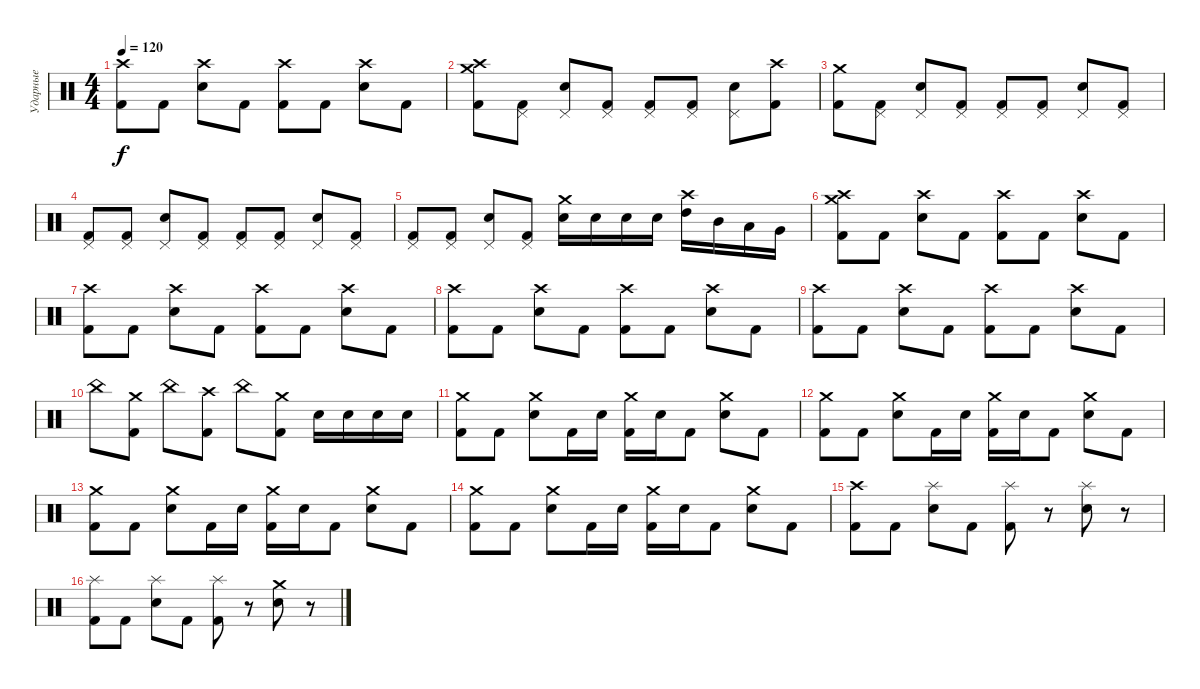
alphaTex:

\track ("Ударные" "Ударные") {instrument percussion}
\staff {score}
\articulation defaults
\ts (4 4)
\tempo 120
\clef neutral
\ks c
("Crash high (hit)" "Kick (hit) 2").8{dy f} "Kick (hit) 2".8 ("Crash high (hit)" "Electric Snare (hit)").8 "Kick (hit) 2".8 ("Crash high (hit)" "Kick (hit) 2").8 "Kick (hit) 2".8 ("Crash high (hit)" "Electric Snare (hit)").8 "Kick (hit) 2".8 |
("Crash medium (hit)" "Crash high (hit)" "Kick (hit) 2").8 ("Pedal Hi-Hat (hit)" "Kick (hit) 2").8 ("Pedal Hi-Hat (hit)" "Electric Snare (hit)").8 ("Pedal Hi-Hat (hit)" "Kick (hit) 2").8 ("Pedal Hi-Hat (hit)" "Kick (hit) 2").8 ("Pedal Hi-Hat (hit)" "Kick (hit) 2").8 ("Pedal Hi-Hat (hit)" "Electric Snare (hit)").8 ("Crash high (hit)" "Kick (hit) 2").8 |
("Crash medium (hit)" "Kick (hit) 2").8 ("Pedal Hi-Hat (hit)" "Kick (hit) 2").8 ("Pedal Hi-Hat (hit)" "Electric Snare (hit)").8 ("Pedal Hi-Hat (hit)" "Kick (hit) 2").8 ("Pedal Hi-Hat (hit)" "Kick (hit) 2").8 ("Pedal Hi-Hat (hit)" "Kick (hit) 2").8 ("Pedal Hi-Hat (hit)" "Electric Snare (hit)").8 ("Pedal Hi-Hat (hit)" "Kick (hit) 2").8 |
("Pedal Hi-Hat (hit)" "Kick (hit) 2").8 ("Pedal Hi-Hat (hit)" "Kick (hit) 2").8 ("Pedal Hi-Hat (hit)" "Electric Snare (hit)").8 ("Pedal Hi-Hat (hit)" "Kick (hit) 2").8 ("Pedal Hi-Hat (hit)" "Kick (hit) 2").8 ("Pedal Hi-Hat (hit)" "Kick (hit) 2").8 ("Pedal Hi-Hat (hit)" "Electric Snare (hit)").8 ("Pedal Hi-Hat (hit)" "Kick (hit) 2").8 |
("Pedal Hi-Hat (hit)" "Kick (hit) 2").8 ("Pedal Hi-Hat (hit)" "Kick (hit) 2").8 ("Pedal Hi-Hat (hit)" "Electric Snare (hit)").8 ("Pedal Hi-Hat (hit)" "Kick (hit) 2").8 ("Crash medium (hit)" "Electric Snare (hit)").16 "Electric Snare (hit)".16 "Electric Snare (hit)".16 "Electric Snare (hit)".16 ("Crash high (hit)" "High Tom (hit)").16 "Mid Tom (hit)".16 "Low Tom (hit)".16 "Very Low Tom (hit)".16 |
("Crash medium (hit)" "Crash high (hit)" "Kick (hit) 2").8 "Kick (hit) 2".8 ("Crash high (hit)" "Electric Snare (hit)").8 "Kick (hit) 2".8 ("Crash high (hit)" "Kick (hit) 2").8 "Kick (hit) 2".8 ("Crash high (hit)" "Electric Snare (hit)").8 "Kick (hit) 2".8 |
("Crash high (hit)" "Kick (hit) 2").8 "Kick (hit) 2".8 ("Crash high (hit)" "Electric Snare (hit)").8 "Kick (hit) 2".8 ("Crash high (hit)" "Kick (hit) 2").8 "Kick (hit) 2".8 ("Crash high (hit)" "Electric Snare (hit)").8 "Kick (hit) 2".8 |
("Crash high (hit)" "Kick (hit) 2").8 "Kick (hit) 2".8 ("Crash high (hit)" "Electric Snare (hit)").8 "Kick (hit) 2".8 ("Crash high (hit)" "Kick (hit) 2").8 "Kick (hit) 2".8 ("Crash high (hit)" "Electric Snare (hit)").8 "Kick (hit) 2".8 |
("Crash high (hit)" "Kick (hit) 2").8 "Kick (hit) 2".8 ("Crash high (hit)" "Electric Snare (hit)").8 "Kick (hit) 2".8 ("Crash high (hit)" "Kick (hit) 2").8 "Kick (hit) 2".8 ("Crash high (hit)" "Electric Snare (hit)").8 "Kick (hit) 2".8 |
"China (hit)".8 ("Crash medium (hit)" "Kick (hit) 2").8 "China (hit)".8 ("Crash high (hit)" "Kick (hit) 2").8 "China (hit)".8 ("Crash medium (hit)" "Kick (hit) 2").8 "Electric Snare (hit)".16 "Electric Snare (hit)".16 "Electric Snare (hit)".16 "Electric Snare (hit)".16 |
("Crash medium (hit)" "Kick (hit) 2").8 "Kick (hit) 2".8 ("Crash medium (hit)" "Electric Snare (hit)").8 "Kick (hit) 2".16 "Electric Snare (hit)".16 ("Crash medium (hit)" "Kick (hit) 2").16 "Electric Snare (hit)".16 "Kick (hit) 2".8 ("Crash medium (hit)" "Electric Snare (hit)").8 "Kick (hit) 2".8 |
("Crash medium (hit)" "Kick (hit) 2").8 "Kick (hit) 2".8 ("Crash medium (hit)" "Electric Snare (hit)").8 "Kick (hit) 2".16 "Electric Snare (hit)".16 ("Crash medium (hit)" "Kick (hit) 2").16 "Electric Snare (hit)".16 "Kick (hit) 2".8 ("Crash medium (hit)" "Electric Snare (hit)").8 "Kick (hit) 2".8 |
("Crash medium (hit)" "Kick (hit) 2").8 "Kick (hit) 2".8 ("Crash medium (hit)" "Electric Snare (hit)").8 "Kick (hit) 2".16 "Electric Snare (hit)".16 ("Crash medium (hit)" "Kick (hit) 2").16 "Electric Snare (hit)".16 "Kick (hit) 2".8 ("Crash medium (hit)" "Electric Snare (hit)").8 "Kick (hit) 2".8 |
("Crash medium (hit)" "Kick (hit) 2").8 "Kick (hit) 2".8 ("Crash medium (hit)" "Electric Snare (hit)").8 "Kick (hit) 2".16 "Electric Snare (hit)".16 ("Crash medium (hit)" "Kick (hit) 2").16 "Electric Snare (hit)".16 "Kick (hit) 2".8 ("Crash medium (hit)" "Electric Snare (hit)").8 "Kick (hit) 2".8 |
("Crash high (hit)" "Kick (hit) 2").8 "Kick (hit) 2".8 ("Splash (hit)" "Electric Snare (hit)").8 "Kick (hit) 2".8 ("Splash (hit)" "Kick (hit) 2").8 r.8 ("Splash (hit)" "Electric Snare (hit)").8 r.8 |
("Splash (hit)" "Kick (hit) 2").8 "Kick (hit) 2".8 ("Splash (hit)" "Electric Snare (hit)").8 "Kick (hit) 2".8 ("Splash (hit)" "Kick (hit) 2").8 r.8 ("Crash medium (hit)" "Electric Snare (hit)").8 r.8
